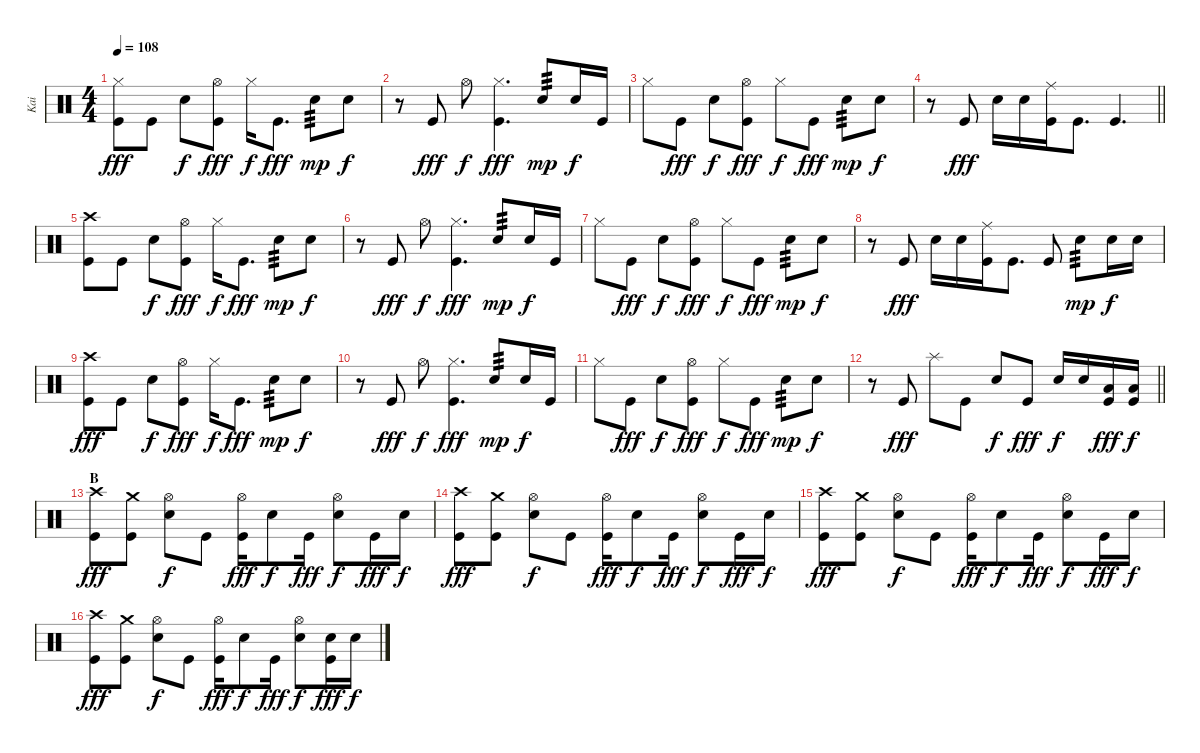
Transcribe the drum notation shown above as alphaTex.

\track ("Kai" "Kai") {instrument percussion}
\staff {score}
\articulation defaults
\ts (4 4)
\tempo 108
\clef neutral
\ks c
("Kick (hit)" "Hi-Hat (closed)").8{dy fff} "Kick (hit)".8 "Snare (hit) 2".8{dy f} ("Hi-Hat (open)" "Kick (hit)").8{dy fff} "Hi-Hat (closed)".16{dy f} "Kick (hit)".8{d dy fff} "Snare (hit) 2".8{tp 3 dy mp} "Snare (hit) 2".8{dy f} |
r.8 "Kick (hit)".8{dy fff} "Hi-Hat (open)".8{dy f} ("Hi-Hat (closed)" "Kick (hit)").4{d dy fff} "Snare (hit) 2".8{tp 3 dy mp} "Snare (hit) 2".16{dy f} "Kick (hit)".16 |
"Hi-Hat (closed)".8 "Kick (hit)".8{dy fff} "Snare (hit) 2".8{dy f} ("Hi-Hat (open)" "Kick (hit)").8{dy fff} "Hi-Hat (closed)".8{dy f} "Kick (hit)".8{dy fff} "Snare (hit) 2".8{tp 3 dy mp} "Snare (hit) 2".8{dy f} |
\barLineRight lightlight
r.8 "Kick (hit)".8{dy fff} "Snare (hit) 2".16 "Snare (hit) 2".16 ("Kick (hit)" "Ride (middle)").16 "Kick (hit)".8{d} "Kick (hit)".4{d} |
("Kick (hit)" "Crash high (hit)").8 "Kick (hit)".8 "Snare (hit) 2".8{dy f} ("Hi-Hat (open)" "Kick (hit)").8{dy fff} "Hi-Hat (closed)".16{dy f} "Kick (hit)".8{d dy fff} "Snare (hit) 2".8{tp 3 dy mp} "Snare (hit) 2".8{dy f} |
r.8 "Kick (hit)".8{dy fff} "Hi-Hat (open)".8{dy f} ("Hi-Hat (closed)" "Kick (hit)").4{d dy fff} "Snare (hit) 2".8{tp 3 dy mp} "Snare (hit) 2".16{dy f} "Kick (hit)".16 |
"Hi-Hat (closed)".8 "Kick (hit)".8{dy fff} "Snare (hit) 2".8{dy f} ("Hi-Hat (open)" "Kick (hit)").8{dy fff} "Hi-Hat (closed)".8{dy f} "Kick (hit)".8{dy fff} "Snare (hit) 2".8{tp 3 dy mp} "Snare (hit) 2".8{dy f} |
r.8 "Kick (hit)".8{dy fff} "Snare (hit) 2".16 "Snare (hit) 2".16 ("Kick (hit)" "Ride (middle)").16 "Kick (hit)".8{d} "Kick (hit)".8 "Snare (hit) 2".8{tp 3 dy mp} "Snare (hit) 2".16{dy f} "Snare (hit) 2".16 |
("Kick (hit)" "Crash high (hit)").8{dy fff} "Kick (hit)".8 "Snare (hit) 2".8{dy f} ("Hi-Hat (open)" "Kick (hit)").8{dy fff} "Hi-Hat (closed)".16{dy f} "Kick (hit)".8{d dy fff} "Snare (hit) 2".8{tp 3 dy mp} "Snare (hit) 2".8{dy f} |
r.8 "Kick (hit)".8{dy fff} "Hi-Hat (open)".8{dy f} ("Hi-Hat (closed)" "Kick (hit)").4{d dy fff} "Snare (hit) 2".8{tp 3 dy mp} "Snare (hit) 2".16{dy f} "Kick (hit)".16 |
"Hi-Hat (closed)".8 "Kick (hit)".8{dy fff} "Snare (hit) 2".8{dy f} ("Hi-Hat (open)" "Kick (hit)").8{dy fff} "Hi-Hat (closed)".8{dy f} "Kick (hit)".8{dy fff} "Snare (hit) 2".8{tp 3 dy mp} "Snare (hit) 2".8{dy f} |
\barLineRight lightlight
r.8 "Kick (hit)".8{dy fff} "Splash (hit)".8 "Kick (hit)".8 "Snare (hit) 2".8{dy f} "Kick (hit)".8{dy fff} "Snare (hit) 2".16{dy f} "Snare (hit) 2".16 ("Kick (hit)" "Low Tom (hit)").16{dy fff} ("Kick (hit)" "Low Tom (hit)").16{dy f} |
\section ("" "B")
("Kick (hit)" "Crash high (hit)").8{dy fff} ("Kick (hit)" "Crash medium (hit)").8 ("Snare (hit) 2" "Hi-Hat (open)").8{dy f} "Kick (hit)".8 ("Kick (hit)" "Hi-Hat (open)").16{dy fff} "Snare (hit) 2".8{dy f} "Kick (hit)".16{dy fff} ("Snare (hit) 2" "Hi-Hat (open)").8{dy f} "Kick (hit)".16{dy fff} "Snare (hit) 2".16{dy f} |
("Kick (hit)" "Crash high (hit)").8{dy fff} ("Kick (hit)" "Crash medium (hit)").8 ("Snare (hit) 2" "Hi-Hat (open)").8{dy f} "Kick (hit)".8 ("Kick (hit)" "Hi-Hat (open)").16{dy fff} "Snare (hit) 2".8{dy f} "Kick (hit)".16{dy fff} ("Snare (hit) 2" "Hi-Hat (open)").8{dy f} "Kick (hit)".16{dy fff} "Snare (hit) 2".16{dy f} |
("Kick (hit)" "Crash high (hit)").8{dy fff} ("Kick (hit)" "Crash medium (hit)").8 ("Snare (hit) 2" "Hi-Hat (open)").8{dy f} "Kick (hit)".8 ("Kick (hit)" "Hi-Hat (open)").16{dy fff} "Snare (hit) 2".8{dy f} "Kick (hit)".16{dy fff} ("Snare (hit) 2" "Hi-Hat (open)").8{dy f} "Kick (hit)".16{dy fff} "Snare (hit) 2".16{dy f} |
("Kick (hit)" "Crash high (hit)").8{dy fff} ("Kick (hit)" "Crash medium (hit)").8 ("Snare (hit) 2" "Hi-Hat (open)").8{dy f} "Kick (hit)".8 ("Kick (hit)" "Hi-Hat (open)").16{dy fff} "Snare (hit) 2".8{dy f} "Kick (hit)".16{dy fff} ("Snare (hit) 2" "Hi-Hat (open)").8{dy f} ("Kick (hit)" "Snare (hit) 2").16{dy fff} "Snare (hit) 2".16{dy f}
